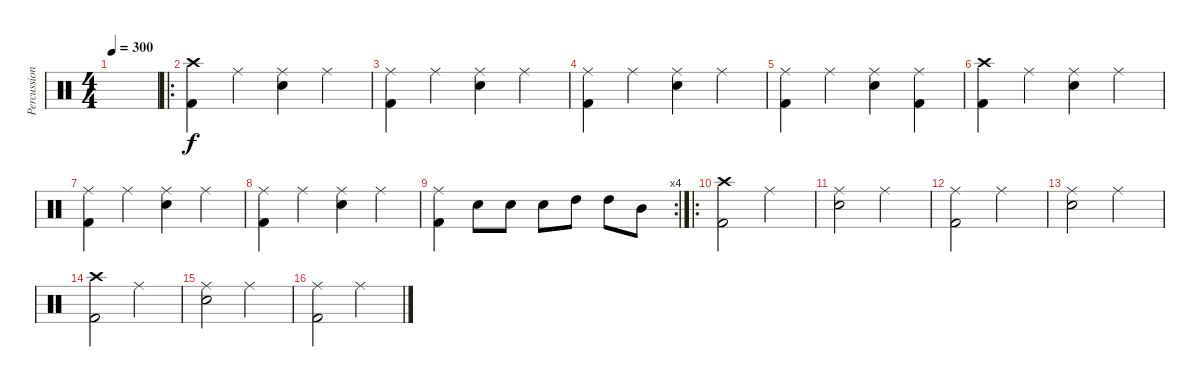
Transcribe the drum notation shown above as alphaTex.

\track ("Percussion" "Percussion") {instrument percussion}
\staff {score}
\articulation defaults
\ts (4 4)
\tempo 300
\clef neutral
\ks c
|
\ro
("Crash high (hit)" "Kick (hit) 2").4 "Ride (middle)".4 ("Ride (middle)" "Snare (hit) 2").4 "Ride (middle)".4 |
("Ride (middle)" "Kick (hit) 2").4 "Ride (middle)".4 ("Ride (middle)" "Snare (hit) 2").4 "Ride (middle)".4 |
("Ride (middle)" "Kick (hit) 2").4 "Ride (middle)".4 ("Ride (middle)" "Snare (hit) 2").4 "Ride (middle)".4 |
("Ride (middle)" "Kick (hit) 2").4 "Ride (middle)".4 ("Ride (middle)" "Snare (hit) 2").4 ("Ride (middle)" "Kick (hit) 2").4 |
("Crash high (hit)" "Kick (hit) 2").4 "Ride (middle)".4 ("Ride (middle)" "Snare (hit) 2").4 "Ride (middle)".4 |
("Ride (middle)" "Kick (hit) 2").4 "Ride (middle)".4 ("Ride (middle)" "Snare (hit) 2").4 "Ride (middle)".4 |
("Ride (middle)" "Kick (hit) 2").4 "Ride (middle)".4 ("Ride (middle)" "Snare (hit) 2").4 "Ride (middle)".4 |
\rc 4
("Ride (middle)" "Kick (hit) 2").4 "Snare (hit) 2".8 "Snare (hit) 2".8 "Snare (hit) 2".8 "High Tom (hit)".8 "High Tom (hit)".8 "Mid Tom (hit)".8 |
\ro
("Crash high (hit)" "Kick (hit) 2").2 "Ride (middle)".2 |
("Ride (middle)" "Snare (hit) 2").2 "Ride (middle)".2 |
("Ride (middle)" "Kick (hit) 2").2 "Ride (middle)".2 |
("Ride (middle)" "Snare (hit) 2").2 "Ride (middle)".2 |
("Crash high (hit)" "Kick (hit) 2").2 "Ride (middle)".2 |
("Ride (middle)" "Snare (hit) 2").2 "Ride (middle)".2 |
("Ride (middle)" "Kick (hit) 2").2 "Ride (middle)".2
